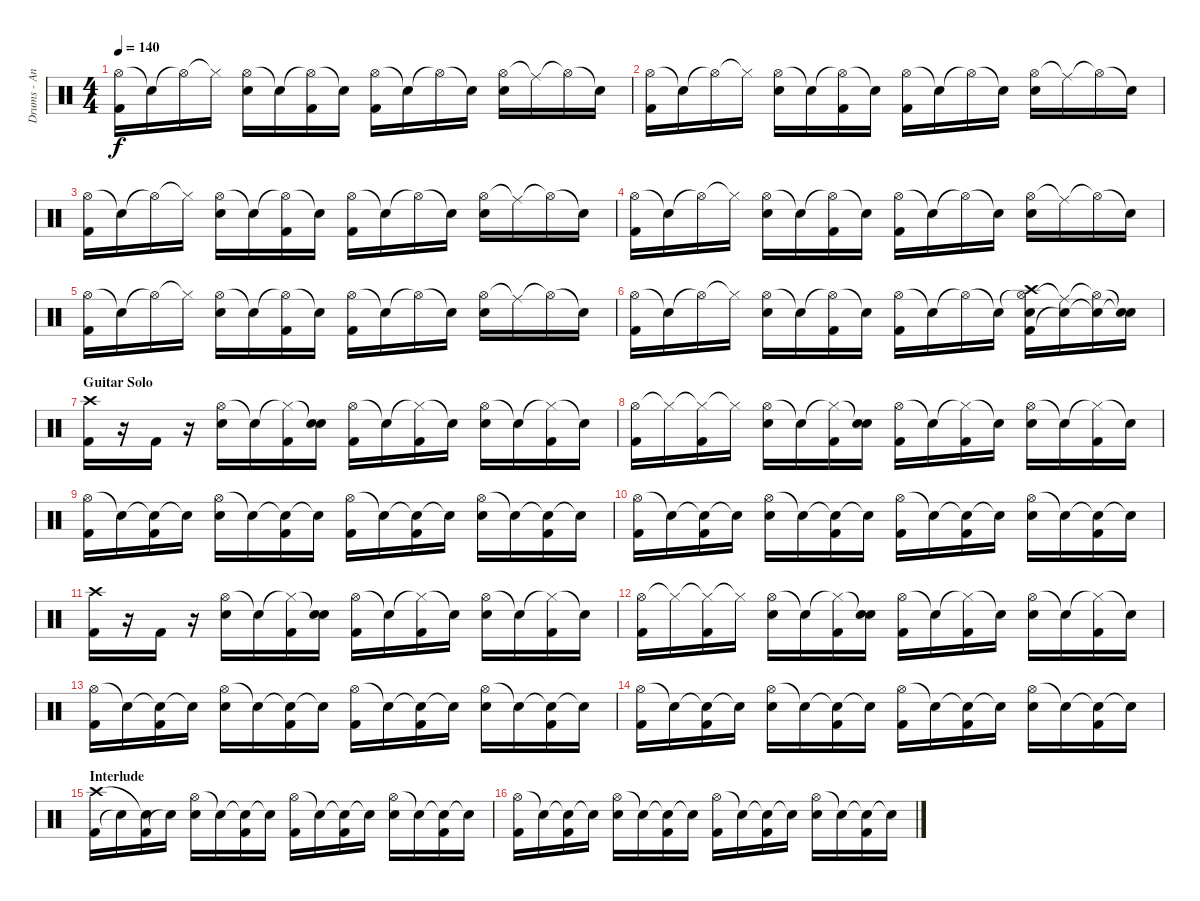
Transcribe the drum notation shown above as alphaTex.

\track ("Drums - Andy Strachan" "Drums - An") {instrument percussion}
\staff {score}
\articulation defaults
\ts (4 4)
\tempo 140
\clef neutral
\ks c
("Hi-Hat (open)" "Kick (hit) 2").16{dy f} "Snare (hit)"{t}.16 "Hi-Hat (open)"{t}.16 "Hi-Hat (closed)"{t}.16 ("Hi-Hat (open)" "Electric Snare (hit)").16 "Snare (hit)"{t}.16 ("Hi-Hat (open)"{t} "Kick (hit) 2").16 "Snare (hit)"{t}.16 ("Hi-Hat (open)" "Kick (hit) 2").16 "Snare (hit)"{t}.16 "Hi-Hat (open)"{t}.16 "Snare (hit)"{t}.16 ("Hi-Hat (open)" "Electric Snare (hit)").16 "Ride (middle)"{t}.16 "Hi-Hat (open)"{t}.16 "Snare (hit)"{t}.16 |
("Hi-Hat (open)" "Kick (hit) 2").16 "Snare (hit)"{t}.16 "Hi-Hat (open)"{t}.16 "Hi-Hat (closed)"{t}.16 ("Hi-Hat (open)" "Electric Snare (hit)").16 "Snare (hit)"{t}.16 ("Hi-Hat (open)"{t} "Kick (hit) 2").16 "Snare (hit)"{t}.16 ("Hi-Hat (open)" "Kick (hit) 2").16 "Snare (hit)"{t}.16 "Hi-Hat (open)"{t}.16 "Snare (hit)"{t}.16 ("Hi-Hat (open)" "Electric Snare (hit)").16 "Ride (middle)"{t}.16 "Hi-Hat (open)"{t}.16 "Snare (hit)"{t}.16 |
("Hi-Hat (open)" "Kick (hit) 2").16 "Snare (hit)"{t}.16 "Hi-Hat (open)"{t}.16 "Hi-Hat (closed)"{t}.16 ("Hi-Hat (open)" "Electric Snare (hit)").16 "Snare (hit)"{t}.16 ("Hi-Hat (open)"{t} "Kick (hit) 2").16 "Snare (hit)"{t}.16 ("Hi-Hat (open)" "Kick (hit) 2").16 "Snare (hit)"{t}.16 "Hi-Hat (open)"{t}.16 "Snare (hit)"{t}.16 ("Hi-Hat (open)" "Electric Snare (hit)").16 "Ride (middle)"{t}.16 "Hi-Hat (open)"{t}.16 "Snare (hit)"{t}.16 |
("Hi-Hat (open)" "Kick (hit) 2").16 "Snare (hit)"{t}.16 "Hi-Hat (open)"{t}.16 "Hi-Hat (closed)"{t}.16 ("Hi-Hat (open)" "Electric Snare (hit)").16 "Snare (hit)"{t}.16 ("Hi-Hat (open)"{t} "Kick (hit) 2").16 "Snare (hit)"{t}.16 ("Hi-Hat (open)" "Kick (hit) 2").16 "Snare (hit)"{t}.16 "Hi-Hat (open)"{t}.16 "Snare (hit)"{t}.16 ("Hi-Hat (open)" "Electric Snare (hit)").16 "Ride (middle)"{t}.16 "Hi-Hat (open)"{t}.16 "Snare (hit)"{t}.16 |
("Hi-Hat (open)" "Kick (hit) 2").16 "Snare (hit)"{t}.16 "Hi-Hat (open)"{t}.16 "Hi-Hat (closed)"{t}.16 ("Hi-Hat (open)" "Electric Snare (hit)").16 "Snare (hit)"{t}.16 ("Hi-Hat (open)"{t} "Kick (hit) 2").16 "Snare (hit)"{t}.16 ("Hi-Hat (open)" "Kick (hit) 2").16 "Snare (hit)"{t}.16 "Hi-Hat (open)"{t}.16 "Snare (hit)"{t}.16 ("Hi-Hat (open)" "Electric Snare (hit)").16 "Ride (middle)"{t}.16 "Hi-Hat (open)"{t}.16 "Snare (hit)"{t}.16 |
("Hi-Hat (open)" "Kick (hit) 2").16 "Snare (hit)"{t}.16 "Hi-Hat (open)"{t}.16 "Hi-Hat (closed)"{t}.16 ("Hi-Hat (open)" "Electric Snare (hit)").16 "Snare (hit)"{t}.16 ("Hi-Hat (open)"{t} "Kick (hit) 2").16 "Snare (hit)"{t}.16 ("Hi-Hat (open)" "Kick (hit) 2").16 "Snare (hit)"{t}.16 "Hi-Hat (open)"{t}.16 "Snare (hit)"{t}.16 ("Hi-Hat (open)"{t} "Kick (hit) 2" "Electric Snare (hit)" "Crash high (hit)").16 ("Ride (middle)"{t} "Snare (hit)"{t}).16 ("Hi-Hat (open)"{t} "Snare (hit)"{t}).16 ("Snare (hit)"{t} "Snare (hit)"{t}).16 |
\section ("" "Guitar Solo")
("Kick (hit) 2" "Crash high (hit)").16 r.16 "Kick (hit) 2".16 r.16 ("Hi-Hat (open)" "Electric Snare (hit)").16 "Snare (hit)"{t}.16 ("Hi-Hat (closed)"{t} "Kick (hit) 2").16 ("Snare (hit)"{t} "Electric Snare (hit)").16 ("Hi-Hat (open)" "Kick (hit) 2").16 "Snare (hit)"{t}.16 ("Hi-Hat (closed)"{t} "Kick (hit) 2").16 "Snare (hit)"{t}.16 ("Hi-Hat (open)" "Electric Snare (hit)").16 "Snare (hit)"{t}.16 ("Hi-Hat (closed)"{t} "Kick (hit) 2").16 "Snare (hit)"{t}.16 |
("Hi-Hat (open)" "Kick (hit) 2").16 "Hi-Hat (closed)"{t}.16 ("Hi-Hat (closed)"{t} "Kick (hit) 2").16 "Hi-Hat (closed)"{t}.16 ("Hi-Hat (open)" "Electric Snare (hit)").16 "Snare (hit)"{t}.16 ("Hi-Hat (closed)"{t} "Kick (hit) 2").16 ("Snare (hit)"{t} "Electric Snare (hit)").16 ("Hi-Hat (open)" "Kick (hit) 2").16 "Snare (hit)"{t}.16 ("Hi-Hat (closed)"{t} "Kick (hit) 2").16 "Snare (hit)"{t}.16 ("Hi-Hat (open)" "Electric Snare (hit)").16 "Snare (hit)"{t}.16 ("Hi-Hat (closed)"{t} "Kick (hit) 2").16 "Snare (hit)"{t}.16 |
("Hi-Hat (open)" "Kick (hit) 2").16 "Snare (hit)"{t}.16 ("Snare (hit)"{t} "Kick (hit) 2").16 "Snare (hit)"{t}.16 ("Hi-Hat (open)" "Electric Snare (hit)").16 "Snare (hit)"{t}.16 ("Snare (hit)"{t} "Kick (hit) 2").16 "Snare (hit)"{t}.16 ("Hi-Hat (open)" "Kick (hit) 2").16 "Snare (hit)"{t}.16 ("Snare (hit)"{t} "Kick (hit) 2").16 "Snare (hit)"{t}.16 ("Hi-Hat (open)" "Electric Snare (hit)").16 "Snare (hit)"{t}.16 ("Snare (hit)"{t} "Kick (hit) 2").16 "Snare (hit)"{t}.16 |
("Hi-Hat (open)" "Kick (hit) 2").16 "Snare (hit)"{t}.16 ("Snare (hit)"{t} "Kick (hit) 2").16 "Snare (hit)"{t}.16 ("Hi-Hat (open)" "Electric Snare (hit)").16 "Snare (hit)"{t}.16 ("Snare (hit)"{t} "Kick (hit) 2").16 "Snare (hit)"{t}.16 ("Hi-Hat (open)" "Kick (hit) 2").16 "Snare (hit)"{t}.16 ("Snare (hit)"{t} "Kick (hit) 2").16 "Snare (hit)"{t}.16 ("Hi-Hat (open)" "Electric Snare (hit)").16 "Snare (hit)"{t}.16 ("Snare (hit)"{t} "Kick (hit) 2").16 "Snare (hit)"{t}.16 |
("Kick (hit) 2" "Crash high (hit)").16 r.16 "Kick (hit) 2".16 r.16 ("Hi-Hat (open)" "Electric Snare (hit)").16 "Snare (hit)"{t}.16 ("Hi-Hat (closed)"{t} "Kick (hit) 2").16 ("Snare (hit)"{t} "Electric Snare (hit)").16 ("Hi-Hat (open)" "Kick (hit) 2").16 "Snare (hit)"{t}.16 ("Hi-Hat (closed)"{t} "Kick (hit) 2").16 "Snare (hit)"{t}.16 ("Hi-Hat (open)" "Electric Snare (hit)").16 "Snare (hit)"{t}.16 ("Hi-Hat (closed)"{t} "Kick (hit) 2").16 "Snare (hit)"{t}.16 |
("Hi-Hat (open)" "Kick (hit) 2").16 "Hi-Hat (closed)"{t}.16 ("Hi-Hat (closed)"{t} "Kick (hit) 2").16 "Hi-Hat (closed)"{t}.16 ("Hi-Hat (open)" "Electric Snare (hit)").16 "Snare (hit)"{t}.16 ("Hi-Hat (closed)"{t} "Kick (hit) 2").16 ("Snare (hit)"{t} "Electric Snare (hit)").16 ("Hi-Hat (open)" "Kick (hit) 2").16 "Snare (hit)"{t}.16 ("Hi-Hat (closed)"{t} "Kick (hit) 2").16 "Snare (hit)"{t}.16 ("Hi-Hat (open)" "Electric Snare (hit)").16 "Snare (hit)"{t}.16 ("Hi-Hat (closed)"{t} "Kick (hit) 2").16 "Snare (hit)"{t}.16 |
("Hi-Hat (open)" "Kick (hit) 2").16 "Snare (hit)"{t}.16 ("Snare (hit)"{t} "Kick (hit) 2").16 "Snare (hit)"{t}.16 ("Hi-Hat (open)" "Electric Snare (hit)").16 "Snare (hit)"{t}.16 ("Snare (hit)"{t} "Kick (hit) 2").16 "Snare (hit)"{t}.16 ("Hi-Hat (open)" "Kick (hit) 2").16 "Snare (hit)"{t}.16 ("Snare (hit)"{t} "Kick (hit) 2").16 "Snare (hit)"{t}.16 ("Hi-Hat (open)" "Electric Snare (hit)").16 "Snare (hit)"{t}.16 ("Snare (hit)"{t} "Kick (hit) 2").16 "Snare (hit)"{t}.16 |
("Hi-Hat (open)" "Kick (hit) 2").16 "Snare (hit)"{t}.16 ("Snare (hit)"{t} "Kick (hit) 2").16 "Snare (hit)"{t}.16 ("Hi-Hat (open)" "Electric Snare (hit)").16 "Snare (hit)"{t}.16 ("Snare (hit)"{t} "Kick (hit) 2").16 "Snare (hit)"{t}.16 ("Hi-Hat (open)" "Kick (hit) 2").16 "Snare (hit)"{t}.16 ("Snare (hit)"{t} "Kick (hit) 2").16 "Snare (hit)"{t}.16 ("Hi-Hat (open)" "Electric Snare (hit)").16 "Snare (hit)"{t}.16 ("Snare (hit)"{t} "Kick (hit) 2").16 "Snare (hit)"{t}.16 |
\section ("" "Interlude")
("Kick (hit) 2" "Crash high (hit)").16 "Snare (hit)"{t}.16 ("Kick (hit) 2" "Snare (hit)"{t}).16 "Snare (hit)"{t}.16 ("Hi-Hat (open)" "Electric Snare (hit)").16 "Snare (hit)"{t}.16 ("Snare (hit)"{t} "Kick (hit) 2").16 "Snare (hit)"{t}.16 ("Hi-Hat (open)" "Kick (hit) 2").16 "Snare (hit)"{t}.16 ("Snare (hit)"{t} "Kick (hit) 2").16 "Snare (hit)"{t}.16 ("Hi-Hat (open)" "Electric Snare (hit)").16 "Snare (hit)"{t}.16 ("Snare (hit)"{t} "Kick (hit) 2").16 "Snare (hit)"{t}.16 |
("Hi-Hat (open)" "Kick (hit) 2").16 "Snare (hit)"{t}.16 ("Snare (hit)"{t} "Kick (hit) 2").16 "Snare (hit)"{t}.16 ("Hi-Hat (open)" "Electric Snare (hit)").16 "Snare (hit)"{t}.16 ("Snare (hit)"{t} "Kick (hit) 2").16 "Snare (hit)"{t}.16 ("Hi-Hat (open)" "Kick (hit) 2").16 "Snare (hit)"{t}.16 ("Snare (hit)"{t} "Kick (hit) 2").16 "Snare (hit)"{t}.16 ("Hi-Hat (open)" "Electric Snare (hit)").16 "Snare (hit)"{t}.16 ("Snare (hit)"{t} "Kick (hit) 2").16 "Snare (hit)"{t}.16
